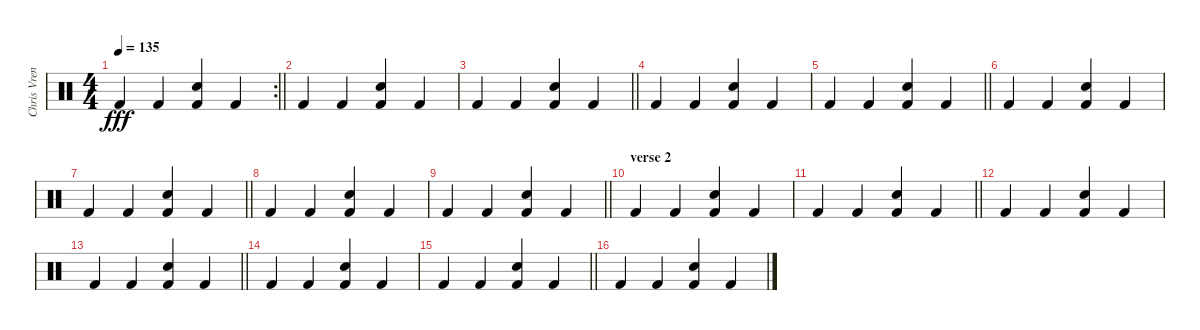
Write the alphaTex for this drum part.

\track ("Chris Vrenna (percussions)" "Chris Vren") {instrument percussion}
\staff {score}
\articulation defaults
\rc 2
\ts (4 4)
\tempo 135
\clef neutral
\barLineRight lightlight
\ks c "Kick (hit) 2".4{dy fff} "Kick (hit) 2".4
("Snare (hit) 2" "Kick (hit) 2").4 "Kick (hit) 2".4 |
"Kick (hit) 2".4 "Kick (hit) 2".4 ("Snare (hit) 2" "Kick (hit) 2").4 "Kick (hit) 2".4 |
\barLineRight lightlight "Kick (hit) 2".4 "Kick (hit) 2".4
("Snare (hit) 2" "Kick (hit) 2").4 "Kick (hit) 2".4 |
"Kick (hit) 2".4 "Kick (hit) 2".4 ("Snare (hit) 2" "Kick (hit) 2").4 "Kick (hit) 2".4 |
\barLineRight lightlight "Kick (hit) 2".4 "Kick (hit) 2".4
("Snare (hit) 2" "Kick (hit) 2").4 "Kick (hit) 2".4 |
"Kick (hit) 2".4 "Kick (hit) 2".4 ("Snare (hit) 2" "Kick (hit) 2").4 "Kick (hit) 2".4 |
\barLineRight lightlight "Kick (hit) 2".4 "Kick (hit) 2".4
("Snare (hit) 2" "Kick (hit) 2").4 "Kick (hit) 2".4 |
"Kick (hit) 2".4 "Kick (hit) 2".4 ("Snare (hit) 2" "Kick (hit) 2").4 "Kick (hit) 2".4 |
\barLineRight lightlight "Kick (hit) 2".4 "Kick (hit) 2".4
("Snare (hit) 2" "Kick (hit) 2").4 "Kick (hit) 2".4 |
\section ("" "verse 2")
"Kick (hit) 2".4 "Kick (hit) 2".4 ("Snare (hit) 2" "Kick (hit) 2").4 "Kick (hit) 2".4 |
\barLineRight lightlight "Kick (hit) 2".4 "Kick (hit) 2".4
("Snare (hit) 2" "Kick (hit) 2").4 "Kick (hit) 2".4 |
"Kick (hit) 2".4 "Kick (hit) 2".4 ("Snare (hit) 2" "Kick (hit) 2").4 "Kick (hit) 2".4 |
\barLineRight lightlight "Kick (hit) 2".4 "Kick (hit) 2".4
("Snare (hit) 2" "Kick (hit) 2").4 "Kick (hit) 2".4 |
"Kick (hit) 2".4 "Kick (hit) 2".4 ("Snare (hit) 2" "Kick (hit) 2").4 "Kick (hit) 2".4 |
\barLineRight lightlight "Kick (hit) 2".4 "Kick (hit) 2".4
("Snare (hit) 2" "Kick (hit) 2").4 "Kick (hit) 2".4 |
"Kick (hit) 2".4 "Kick (hit) 2".4 ("Snare (hit) 2" "Kick (hit) 2").4 "Kick (hit) 2".4
